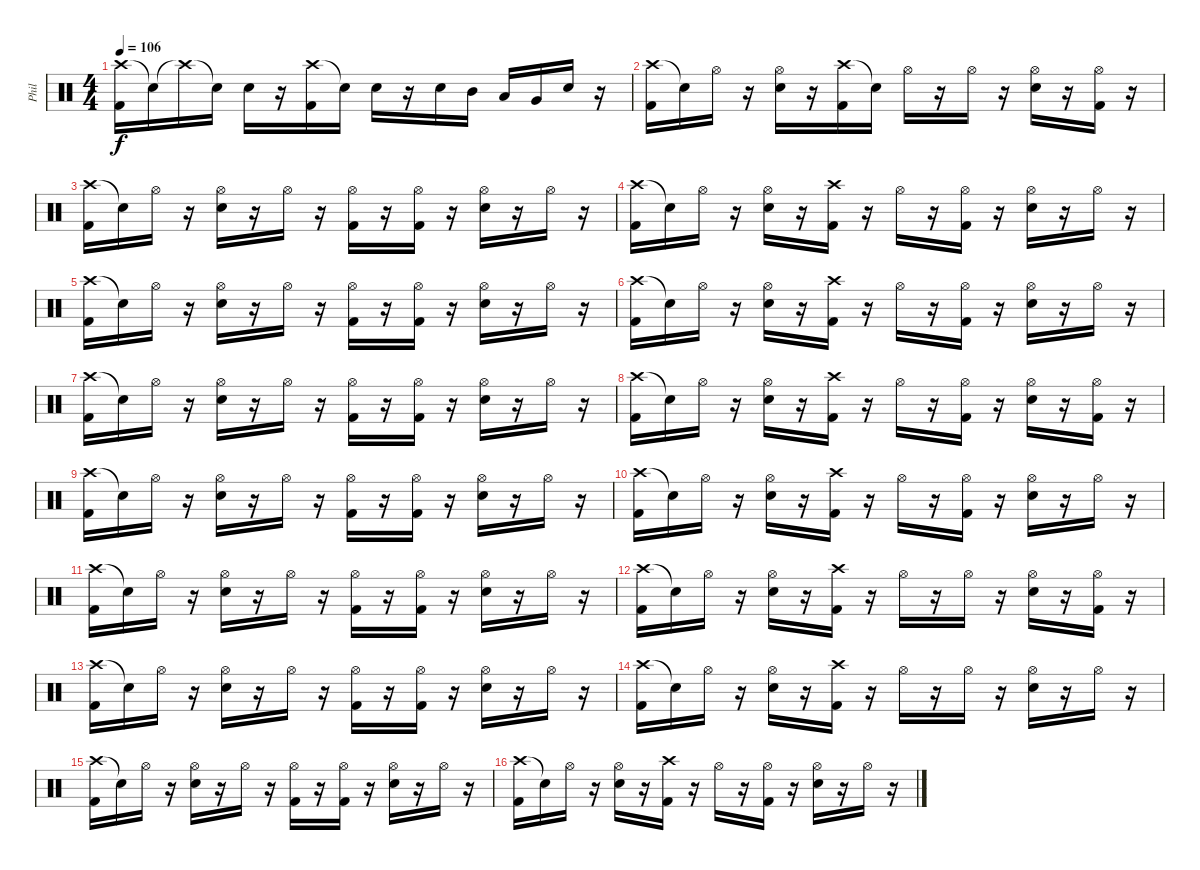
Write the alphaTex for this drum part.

\track ("Phil" "Phil") {instrument percussion}
\staff {score}
\articulation defaults
\ts (4 4)
\tempo 106
\clef neutral
\ks c
("Crash high (hit)" "Kick (hit) 2").16{dy f} "Snare (hit)"{t}.16 "Crash high (hit)"{t}.16 "Snare (hit)"{t}.16 "Snare (hit) 2".16 r.16 ("Crash high (hit)" "Kick (hit) 2").16 "Snare (hit)"{t}.16 "Snare (hit) 2".16 r.16 "Snare (hit) 2".16 "Mid Tom (hit)".16 "Low Tom (hit)".16 "Very Low Tom (hit)".16 "Snare (hit) 2".16 r.16 |
("Crash high (hit)" "Kick (hit) 2").16 "Snare (hit)"{t}.16 "Hi-Hat (open)".16 r.16 ("Hi-Hat (open)" "Snare (hit) 2").16 r.16 ("Crash high (hit)" "Kick (hit) 2").16 "Snare (hit)"{t}.16 "Hi-Hat (open)".16 r.16 "Hi-Hat (open)".16 r.16 ("Hi-Hat (open)" "Snare (hit) 2").16 r.16 ("Hi-Hat (open)" "Kick (hit) 2").16 r.16 |
("Crash high (hit)" "Kick (hit) 2").16 "Snare (hit)"{t}.16 "Hi-Hat (open)".16 r.16 ("Hi-Hat (open)" "Snare (hit) 2").16 r.16 "Hi-Hat (open)".16 r.16 ("Hi-Hat (open)" "Kick (hit) 2").16 r.16 ("Hi-Hat (open)" "Kick (hit) 2").16 r.16 ("Hi-Hat (open)" "Snare (hit) 2").16 r.16 "Hi-Hat (open)".16 r.16 |
("Crash high (hit)" "Kick (hit) 2").16 "Snare (hit)"{t}.16 "Hi-Hat (open)".16 r.16 ("Hi-Hat (open)" "Snare (hit) 2").16 r.16 ("Crash high (hit)" "Kick (hit) 2").16 r.16 "Hi-Hat (open)".16 r.16 ("Hi-Hat (open)" "Kick (hit) 2").16 r.16 ("Hi-Hat (open)" "Snare (hit) 2").16 r.16 "Hi-Hat (open)".16 r.16 |
("Crash high (hit)" "Kick (hit) 2").16 "Snare (hit)"{t}.16 "Hi-Hat (open)".16 r.16 ("Hi-Hat (open)" "Snare (hit) 2").16 r.16 "Hi-Hat (open)".16 r.16 ("Hi-Hat (open)" "Kick (hit) 2").16 r.16 ("Hi-Hat (open)" "Kick (hit) 2").16 r.16 ("Hi-Hat (open)" "Snare (hit) 2").16 r.16 "Hi-Hat (open)".16 r.16 |
("Crash high (hit)" "Kick (hit) 2").16 "Snare (hit)"{t}.16 "Hi-Hat (open)".16 r.16 ("Hi-Hat (open)" "Snare (hit) 2").16 r.16 ("Crash high (hit)" "Kick (hit) 2").16 r.16 "Hi-Hat (open)".16 r.16 ("Hi-Hat (open)" "Kick (hit) 2").16 r.16 ("Hi-Hat (open)" "Snare (hit) 2").16 r.16 "Hi-Hat (open)".16 r.16 |
("Crash high (hit)" "Kick (hit) 2").16 "Snare (hit)"{t}.16 "Hi-Hat (open)".16 r.16 ("Hi-Hat (open)" "Snare (hit) 2").16 r.16 "Hi-Hat (open)".16 r.16 ("Hi-Hat (open)" "Kick (hit) 2").16 r.16 ("Hi-Hat (open)" "Kick (hit) 2").16 r.16 ("Hi-Hat (open)" "Snare (hit) 2").16 r.16 "Hi-Hat (open)".16 r.16 |
("Crash high (hit)" "Kick (hit) 2").16 "Snare (hit)"{t}.16 "Hi-Hat (open)".16 r.16 ("Hi-Hat (open)" "Snare (hit) 2").16 r.16 ("Crash high (hit)" "Kick (hit) 2").16 r.16 "Hi-Hat (open)".16 r.16 ("Hi-Hat (open)" "Kick (hit) 2").16 r.16 ("Hi-Hat (open)" "Snare (hit) 2").16 r.16 ("Hi-Hat (open)" "Kick (hit) 2").16 r.16 |
("Crash high (hit)" "Kick (hit) 2").16 "Snare (hit)"{t}.16 "Hi-Hat (open)".16 r.16 ("Hi-Hat (open)" "Snare (hit) 2").16 r.16 "Hi-Hat (open)".16 r.16 ("Hi-Hat (open)" "Kick (hit) 2").16 r.16 ("Hi-Hat (open)" "Kick (hit) 2").16 r.16 ("Hi-Hat (open)" "Snare (hit) 2").16 r.16 "Hi-Hat (open)".16 r.16 |
("Crash high (hit)" "Kick (hit) 2").16 "Snare (hit)"{t}.16 "Hi-Hat (open)".16 r.16 ("Hi-Hat (open)" "Snare (hit) 2").16 r.16 ("Crash high (hit)" "Kick (hit) 2").16 r.16 "Hi-Hat (open)".16 r.16 ("Hi-Hat (open)" "Kick (hit) 2").16 r.16 ("Hi-Hat (open)" "Snare (hit) 2").16 r.16 "Hi-Hat (open)".16 r.16 |
("Crash high (hit)" "Kick (hit) 2").16 "Snare (hit)"{t}.16 "Hi-Hat (open)".16 r.16 ("Hi-Hat (open)" "Snare (hit) 2").16 r.16 "Hi-Hat (open)".16 r.16 ("Hi-Hat (open)" "Kick (hit) 2").16 r.16 ("Hi-Hat (open)" "Kick (hit) 2").16 r.16 ("Hi-Hat (open)" "Snare (hit) 2").16 r.16 "Hi-Hat (open)".16 r.16 |
("Crash high (hit)" "Kick (hit) 2").16 "Snare (hit)"{t}.16 "Hi-Hat (open)".16 r.16 ("Hi-Hat (open)" "Snare (hit) 2").16 r.16 ("Crash high (hit)" "Kick (hit) 2").16 r.16 "Hi-Hat (open)".16 r.16 "Hi-Hat (open)".16 r.16 ("Hi-Hat (open)" "Snare (hit) 2").16 r.16 ("Hi-Hat (open)" "Kick (hit) 2").16 r.16 |
("Crash high (hit)" "Kick (hit) 2").16 "Snare (hit)"{t}.16 "Hi-Hat (open)".16 r.16 ("Hi-Hat (open)" "Snare (hit) 2").16 r.16 "Hi-Hat (open)".16 r.16 ("Hi-Hat (open)" "Kick (hit) 2").16 r.16 ("Hi-Hat (open)" "Kick (hit) 2").16 r.16 ("Hi-Hat (open)" "Snare (hit) 2").16 r.16 "Hi-Hat (open)".16 r.16 |
("Crash high (hit)" "Kick (hit) 2").16 "Snare (hit)"{t}.16 "Hi-Hat (open)".16 r.16 ("Hi-Hat (open)" "Snare (hit) 2").16 r.16 ("Crash high (hit)" "Kick (hit) 2").16 r.16 "Hi-Hat (open)".16 r.16 "Hi-Hat (open)".16 r.16 ("Hi-Hat (open)" "Snare (hit) 2").16 r.16 "Hi-Hat (open)".16 r.16 |
("Crash high (hit)" "Kick (hit) 2").16 "Snare (hit)"{t}.16 "Hi-Hat (open)".16 r.16 ("Hi-Hat (open)" "Snare (hit) 2").16 r.16 "Hi-Hat (open)".16 r.16 ("Hi-Hat (open)" "Kick (hit) 2").16 r.16 ("Hi-Hat (open)" "Kick (hit) 2").16 r.16 ("Hi-Hat (open)" "Snare (hit) 2").16 r.16 "Hi-Hat (open)".16 r.16 |
("Crash high (hit)" "Kick (hit) 2").16 "Snare (hit)"{t}.16 "Hi-Hat (open)".16 r.16 ("Hi-Hat (open)" "Snare (hit) 2").16 r.16 ("Crash high (hit)" "Kick (hit) 2").16 r.16 "Hi-Hat (open)".16 r.16 ("Hi-Hat (open)" "Kick (hit) 2").16 r.16 ("Hi-Hat (open)" "Snare (hit) 2").16 r.16 "Hi-Hat (open)".16 r.16
